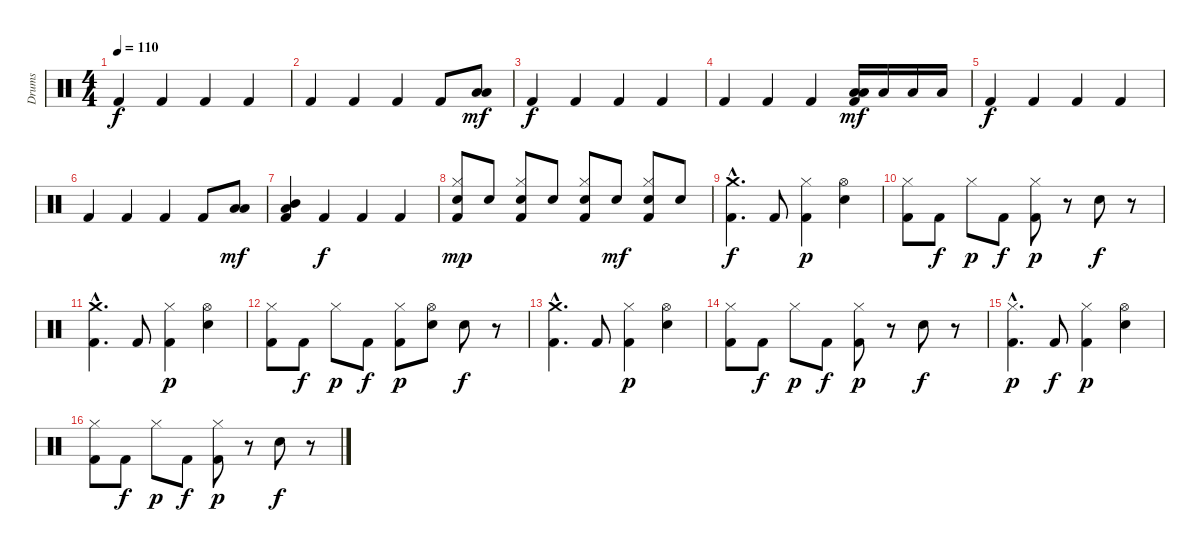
\track ("Drums" "Drums") {instrument percussion}
\staff {score}
\articulation defaults
\ts (4 4)
\tempo 110
\clef neutral
\ks c "Kick (hit) 2".4{dy f} "Kick (hit) 2".4 "Kick (hit) 2".4 "Kick (hit) 2".4
|
"Kick (hit) 2".4 "Kick (hit) 2".4 "Kick (hit) 2".4 "Kick (hit) 2".8 ("Low Tom (hit)" "Low Floor Tom (hit)").8{dy mf} |
"Kick (hit) 2".4{dy f} "Kick (hit) 2".4 "Kick (hit) 2".4 "Kick (hit) 2".4 |
"Kick (hit) 2".4 "Kick (hit) 2".4 "Kick (hit) 2".4 ("Low Tom (hit)" "Low Floor Tom (hit)" "Kick (hit) 2").16{dy mf} "Low Floor Tom (hit)".16 "Low Floor Tom (hit)".16 "Low Floor Tom (hit)".16 |
"Kick (hit) 2".4{dy f} "Kick (hit) 2".4 "Kick (hit) 2".4 "Kick (hit) 2".4 |
"Kick (hit) 2".4 "Kick (hit) 2".4 "Kick (hit) 2".4 "Kick (hit) 2".8 ("Low Tom (hit)" "Low Floor Tom (hit)").8{dy mf} |
("Mid Tom (hit)" "Low Floor Tom (hit)" "Kick (hit) 2").4 "Kick (hit) 2".4{dy f} "Kick (hit) 2".4 "Kick (hit) 2".4 |
("Hi-Hat (closed)" "Electric Snare (hit)" "Kick (hit) 2").8{dy mp} "Electric Snare (hit)".8 ("Hi-Hat (closed)" "Electric Snare (hit)" "Kick (hit) 2").8 "Electric Snare (hit)".8 ("Hi-Hat (closed)" "Electric Snare (hit)" "Kick (hit) 2").8 "Electric Snare (hit)".8{dy mf} ("Hi-Hat (closed)" "Electric Snare (hit)" "Kick (hit) 2").8 "Electric Snare (hit)".8 |
("Crash medium (hit)"{hac} "Kick (hit) 2"{hac}).4{d dy f} "Kick (hit) 2".8 ("Hi-Hat (closed)" "Kick (hit) 2").4{dy p} ("Hi-Hat (open)" "Electric Snare (hit)").4 |
("Hi-Hat (closed)" "Kick (hit) 2").8 "Kick (hit) 2".8{dy f} "Hi-Hat (closed)".8{dy p} "Kick (hit) 2".8{dy f} ("Hi-Hat (closed)" "Kick (hit) 2").8{dy p} r.8 "Electric Snare (hit)".8{dy f} r.8 |
("Crash medium (hit)"{hac} "Kick (hit) 2"{hac}).4{d} "Kick (hit) 2".8 ("Hi-Hat (closed)" "Kick (hit) 2").4{dy p} ("Hi-Hat (open)" "Electric Snare (hit)").4 |
("Hi-Hat (closed)" "Kick (hit) 2").8 "Kick (hit) 2".8{dy f} "Hi-Hat (closed)".8{dy p} "Kick (hit) 2".8{dy f} ("Hi-Hat (closed)" "Kick (hit) 2").8{dy p} ("Hi-Hat (open)" "Electric Snare (hit)").8 "Electric Snare (hit)".8{dy f} r.8 |
("Crash medium (hit)"{hac} "Kick (hit) 2"{hac}).4{d} "Kick (hit) 2".8 ("Hi-Hat (closed)" "Kick (hit) 2").4{dy p} ("Hi-Hat (open)" "Electric Snare (hit)").4 |
("Hi-Hat (closed)" "Kick (hit) 2").8 "Kick (hit) 2".8{dy f} "Hi-Hat (closed)".8{dy p} "Kick (hit) 2".8{dy f} ("Hi-Hat (closed)" "Kick (hit) 2").8{dy p} r.8 "Electric Snare (hit)".8{dy f} r.8 |
("Hi-Hat (closed)"{hac} "Kick (hit) 2"{hac}).4{d dy p} "Kick (hit) 2".8{dy f} ("Hi-Hat (closed)" "Kick (hit) 2").4{dy p} ("Hi-Hat (open)" "Electric Snare (hit)").4 |
("Hi-Hat (closed)" "Kick (hit) 2").8 "Kick (hit) 2".8{dy f} "Hi-Hat (closed)".8{dy p} "Kick (hit) 2".8{dy f} ("Hi-Hat (closed)" "Kick (hit) 2").8{dy p} r.8 "Electric Snare (hit)".8{dy f} r.8
